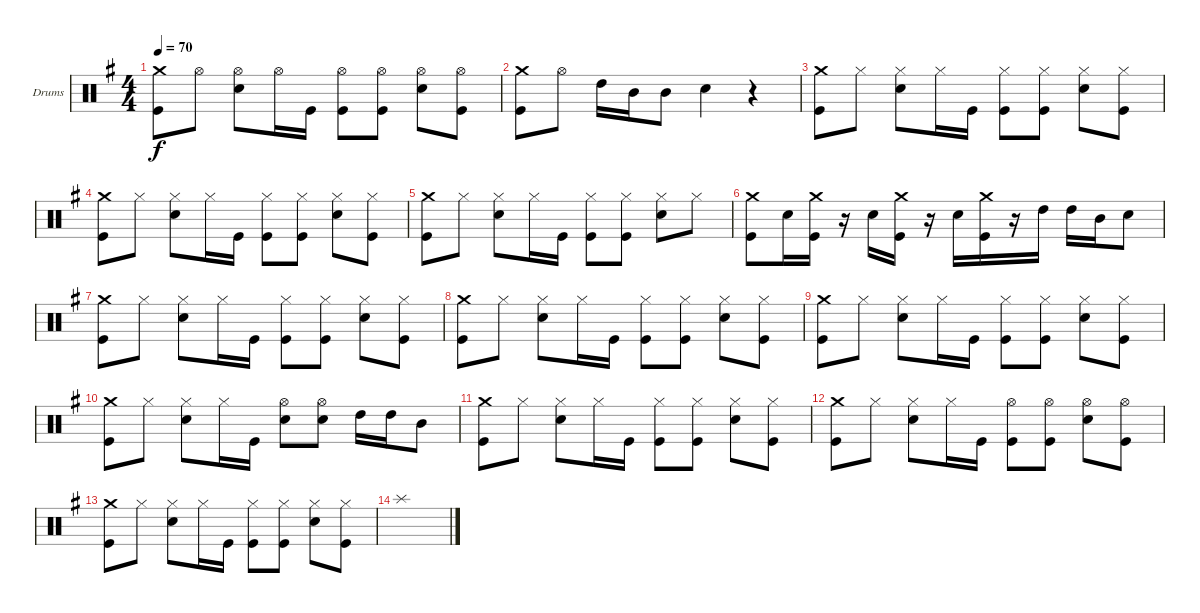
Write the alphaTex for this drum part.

\bracketExtendMode groupsimilarinstruments
\firstSystemTrackNameOrientation horizontal
\otherSystemsTrackNameOrientation horizontal
\track ("Александр Манякин" "Drums") {instrument percussion}
\staff {score}
\articulation defaults
\ts (4 4)
\tempo 70
\clef neutral
\ks eminor
("Kick (hit)" "Crash medium (hit)").8{dy f} "Hi-Hat (open)".8 ("Snare (hit) 2" "Hi-Hat (open)").8 "Hi-Hat (open)".16 "Kick (hit)".16 ("Hi-Hat (open)" "Kick (hit)").8 ("Hi-Hat (open)" "Kick (hit)").8 ("Hi-Hat (open)" "Snare (hit) 2").8 ("Hi-Hat (open)" "Kick (hit)").8 |
("Kick (hit)" "Crash medium (hit)").8 "Hi-Hat (open)".8 "High Tom (hit)".16 "Mid Tom (hit)".16 "Mid Tom (hit)".8 "Snare (hit) 2".4 r.4 |
("Kick (hit)" "Crash medium (hit)").8 "Hi-Hat (closed)".8 ("Snare (hit) 2" "Hi-Hat (closed)").8 "Hi-Hat (closed)".16 "Kick (hit)".16 ("Hi-Hat (closed)" "Kick (hit)").8 ("Hi-Hat (closed)" "Kick (hit)").8 ("Hi-Hat (closed)" "Snare (hit) 2").8 ("Hi-Hat (closed)" "Kick (hit)").8 |
("Kick (hit)" "Crash medium (hit)").8 "Hi-Hat (closed)".8 ("Snare (hit) 2" "Hi-Hat (closed)").8 "Hi-Hat (closed)".16 "Kick (hit)".16 ("Hi-Hat (closed)" "Kick (hit)").8 ("Hi-Hat (closed)" "Kick (hit)").8 ("Hi-Hat (closed)" "Snare (hit) 2").8 ("Hi-Hat (closed)" "Kick (hit)").8 |
("Kick (hit)" "Crash medium (hit)").8 "Hi-Hat (closed)".8 ("Snare (hit) 2" "Hi-Hat (closed)").8 "Hi-Hat (closed)".16 "Kick (hit)".16 ("Hi-Hat (closed)" "Kick (hit)").8 ("Hi-Hat (closed)" "Kick (hit)").8 ("Hi-Hat (closed)" "Snare (hit) 2").8 "Hi-Hat (closed)".8 |
("Kick (hit)" "Crash medium (hit)").8 "Snare (hit) 2".16 ("Kick (hit)" "Crash medium (hit)").16 r.16 "Snare (hit) 2".16 ("Kick (hit)" "Crash medium (hit)").16 r.16 "Snare (hit) 2".16 ("Kick (hit)" "Crash medium (hit)").16 r.16 "High Tom (hit)".16 "High Tom (hit)".16 "Mid Tom (hit)".16 "Snare (hit) 2".8 |
("Kick (hit)" "Crash medium (hit)").8 "Hi-Hat (closed)".8 ("Snare (hit) 2" "Hi-Hat (closed)").8 "Hi-Hat (closed)".16 "Kick (hit)".16 ("Hi-Hat (closed)" "Kick (hit)").8 ("Hi-Hat (closed)" "Kick (hit)").8 ("Hi-Hat (closed)" "Snare (hit) 2").8 ("Hi-Hat (closed)" "Kick (hit)").8 |
("Kick (hit)" "Crash medium (hit)").8 "Hi-Hat (closed)".8 ("Snare (hit) 2" "Hi-Hat (closed)").8 "Hi-Hat (closed)".16 "Kick (hit)".16 ("Hi-Hat (closed)" "Kick (hit)").8 ("Hi-Hat (closed)" "Kick (hit)").8 ("Hi-Hat (closed)" "Snare (hit) 2").8 ("Hi-Hat (closed)" "Kick (hit)").8 |
("Kick (hit)" "Crash medium (hit)").8 "Hi-Hat (closed)".8 ("Snare (hit) 2" "Hi-Hat (closed)").8 "Hi-Hat (closed)".16 "Kick (hit)".16 ("Hi-Hat (closed)" "Kick (hit)").8 ("Hi-Hat (closed)" "Kick (hit)").8 ("Hi-Hat (closed)" "Snare (hit) 2").8 ("Hi-Hat (closed)" "Kick (hit)").8 |
("Kick (hit)" "Crash medium (hit)").8 "Hi-Hat (closed)".8 ("Snare (hit) 2" "Hi-Hat (closed)").8 "Hi-Hat (closed)".16 "Kick (hit)".16 ("Snare (hit) 2" "Hi-Hat (open)").8 ("Snare (hit) 2" "Hi-Hat (open)").8 "High Tom (hit)".16 "High Tom (hit)".16 "Mid Tom (hit)".8 |
("Kick (hit)" "Crash medium (hit)").8 "Hi-Hat (closed)".8 ("Snare (hit) 2" "Hi-Hat (closed)").8 "Hi-Hat (closed)".16 "Kick (hit)".16 ("Hi-Hat (closed)" "Kick (hit)").8 ("Hi-Hat (closed)" "Kick (hit)").8 ("Hi-Hat (closed)" "Snare (hit) 2").8 ("Hi-Hat (closed)" "Kick (hit)").8 |
("Kick (hit)" "Crash medium (hit)").8 "Hi-Hat (closed)".8 ("Snare (hit) 2" "Hi-Hat (closed)").8 "Hi-Hat (closed)".16 "Kick (hit)".16 ("Hi-Hat (open)" "Kick (hit)").8 ("Hi-Hat (open)" "Kick (hit)").8 ("Hi-Hat (open)" "Snare (hit) 2").8 ("Kick (hit)" "Hi-Hat (open)").8 |
("Kick (hit)" "Crash medium (hit)").8 "Hi-Hat (closed)".8 ("Snare (hit) 2" "Hi-Hat (closed)").8 "Hi-Hat (closed)".16 "Kick (hit)".16 ("Hi-Hat (closed)" "Kick (hit)").8 ("Hi-Hat (closed)" "Kick (hit)").8 ("Hi-Hat (closed)" "Snare (hit) 2").8 ("Hi-Hat (closed)" "Kick (hit)").8 |
"Splash (hit)".1
